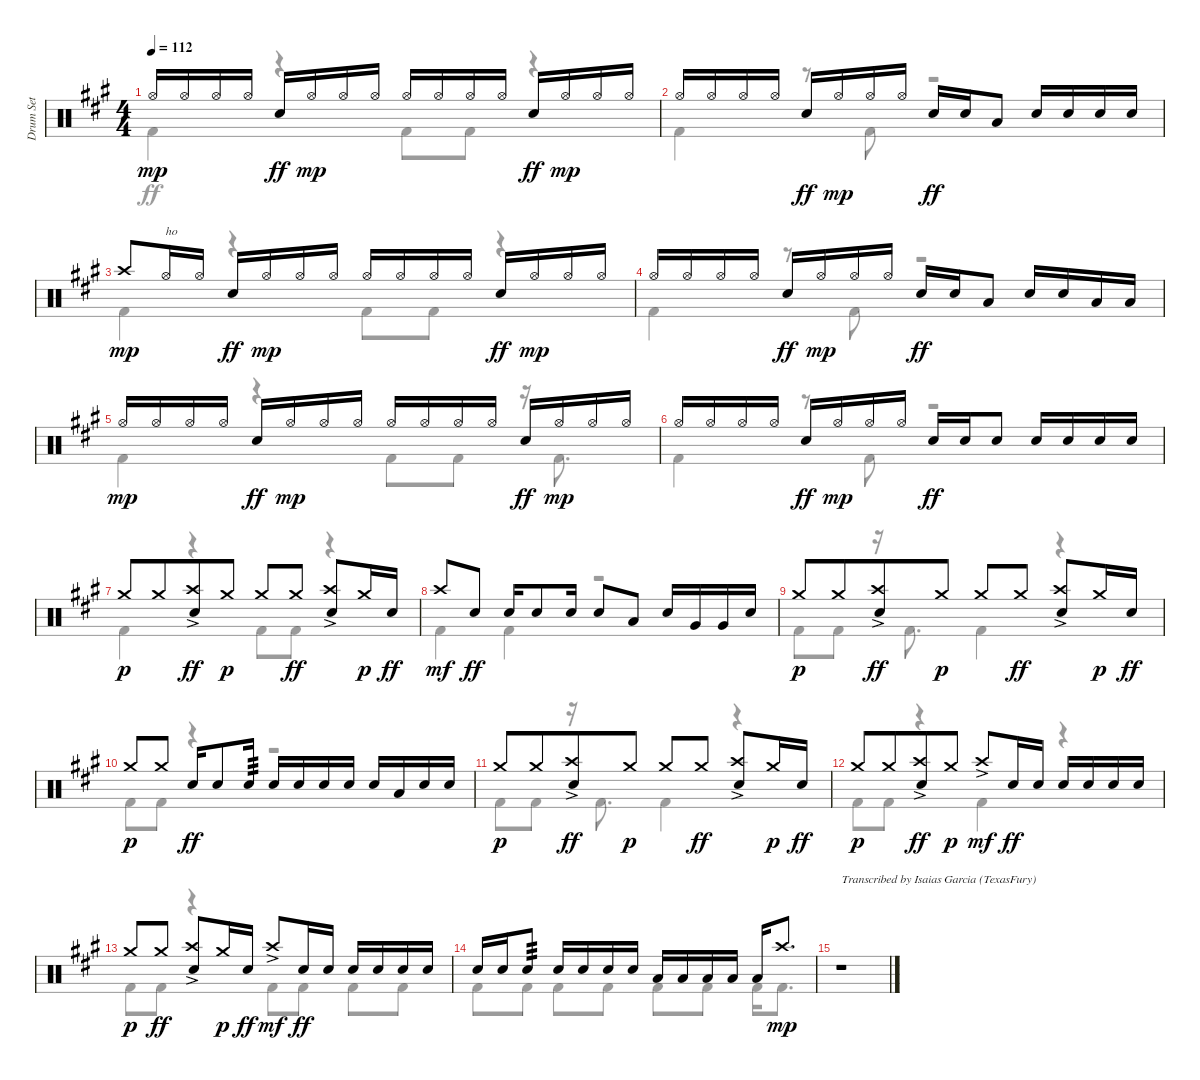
\track ("Drum Set" "Drum Set") {instrument percussion}
\staff {score}
\articulation defaults
\voice
\ts (4 4)
\tempo 112
\clef neutral
\ks f#minor "Hi-Hat (open)".16{dy mp} "Hi-Hat (open)".16 "Hi-Hat (open)".16 "Hi-Hat (open)".16 "Electric Snare (hit)".16{dy ff} "Hi-Hat (open)".16{dy mp} "Hi-Hat (open)".16 "Hi-Hat (open)".16 "Hi-Hat (open)".16 "Hi-Hat (open)".16 "Hi-Hat (open)".16 "Hi-Hat (open)".16 "Electric Snare (hit)".16{dy ff} "Hi-Hat (open)".16{dy mp} "Hi-Hat (open)".16 "Hi-Hat (open)".16
|
"Hi-Hat (open)".16 "Hi-Hat (open)".16 "Hi-Hat (open)".16 "Hi-Hat (open)".16 "Electric Snare (hit)".16{dy ff} "Hi-Hat (open)".16{dy mp} "Hi-Hat (open)".16 "Hi-Hat (open)".16 "Electric Snare (hit)".16{dy ff} "Electric Snare (hit)".16 "Low Tom (hit)".8 "Electric Snare (hit)".16 "Electric Snare (hit)".16 "Electric Snare (hit)".16 "Electric Snare (hit)".16 |
"Crash high (hit)".8{dy mp} "Hi-Hat (open)".16{txt "ho"} "Hi-Hat (open)".16 "Electric Snare (hit)".16{dy ff} "Hi-Hat (open)".16{dy mp} "Hi-Hat (open)".16 "Hi-Hat (open)".16 "Hi-Hat (open)".16 "Hi-Hat (open)".16 "Hi-Hat (open)".16 "Hi-Hat (open)".16 "Electric Snare (hit)".16{dy ff} "Hi-Hat (open)".16{dy mp} "Hi-Hat (open)".16 "Hi-Hat (open)".16 |
"Hi-Hat (open)".16 "Hi-Hat (open)".16 "Hi-Hat (open)".16 "Hi-Hat (open)".16 "Electric Snare (hit)".16{dy ff} "Hi-Hat (open)".16{dy mp} "Hi-Hat (open)".16 "Hi-Hat (open)".16 "Electric Snare (hit)".16{dy ff} "Electric Snare (hit)".16 "Low Tom (hit)".8 "Electric Snare (hit)".16 "Electric Snare (hit)".16 "Low Tom (hit)".16 "Low Tom (hit)".16 |
"Hi-Hat (open)".16{dy mp} "Hi-Hat (open)".16 "Hi-Hat (open)".16 "Hi-Hat (open)".16 "Electric Snare (hit)".16{dy ff} "Hi-Hat (open)".16{dy mp} "Hi-Hat (open)".16 "Hi-Hat (open)".16 "Hi-Hat (open)".16 "Hi-Hat (open)".16 "Hi-Hat (open)".16 "Hi-Hat (open)".16 "Electric Snare (hit)".16{dy ff} "Hi-Hat (open)".16{dy mp} "Hi-Hat (open)".16 "Hi-Hat (open)".16 |
"Hi-Hat (open)".16 "Hi-Hat (open)".16 "Hi-Hat (open)".16 "Hi-Hat (open)".16 "Electric Snare (hit)".16{dy ff} "Hi-Hat (open)".16{dy mp} "Hi-Hat (open)".16 "Hi-Hat (open)".16 "Electric Snare (hit)".16{dy ff} "Electric Snare (hit)".16 "Electric Snare (hit)".8 "Electric Snare (hit)".16 "Electric Snare (hit)".16 "Electric Snare (hit)".16 "Electric Snare (hit)".16 |
"Crash medium (hit)".8{dy p} "Crash medium (hit)".8{beam merge} ("Crash high (hit)"{ac} "Electric Snare (hit)").8{dy ff} "Crash medium (hit)".8{dy p} "Crash medium (hit)".8 "Crash medium (hit)".8{dy ff beam split} ("Crash high (hit)"{ac} "Electric Snare (hit)").8 "Crash medium (hit)".16{dy p} "Electric Snare (hit)".16{dy ff} |
"Crash high (hit)".8{dy mf} "Electric Snare (hit)".8{dy ff} "Electric Snare (hit)".16 "Electric Snare (hit)".8 "Electric Snare (hit)".16 "Electric Snare (hit)".8 "Low Tom (hit)".8 "Electric Snare (hit)".16 "Very Low Tom (hit)".16 "Very Low Tom (hit)".16 "Electric Snare (hit)".16 |
"Crash medium (hit)".8{dy p} "Crash medium (hit)".8{beam merge} ("Crash high (hit)"{ac} "Electric Snare (hit)").8{dy ff} "Crash medium (hit)".8{dy p} "Crash medium (hit)".8 "Crash medium (hit)".8{dy ff beam split} ("Crash high (hit)"{ac} "Electric Snare (hit)").8 "Crash medium (hit)".16{dy p} "Electric Snare (hit)".16{dy ff} |
"Crash medium (hit)".8{dy p} "Crash medium (hit)".8 "Electric Snare (hit)".16{dy ff} "Electric Snare (hit)".8 "Electric Snare (hit)".16{tp 3} "Electric Snare (hit)".16 "Electric Snare (hit)".16 "Electric Snare (hit)".16 "Electric Snare (hit)".16 "Electric Snare (hit)".16 "Low Tom (hit)".16 "Electric Snare (hit)".16 "Electric Snare (hit)".16 |
"Crash medium (hit)".8{dy p} "Crash medium (hit)".8{beam merge} ("Crash high (hit)"{ac} "Electric Snare (hit)").8{dy ff} "Crash medium (hit)".8{dy p} "Crash medium (hit)".8 "Crash medium (hit)".8{dy ff beam split} ("Crash high (hit)"{ac} "Electric Snare (hit)").8 "Crash medium (hit)".16{dy p} "Electric Snare (hit)".16{dy ff} |
"Crash medium (hit)".8{dy p} "Crash medium (hit)".8{beam merge} ("Crash high (hit)"{ac} "Electric Snare (hit)").8{dy ff} "Crash medium (hit)".8{dy p} "Crash high (hit)"{ac}.8{dy mf} "Electric Snare (hit)".16{dy ff} "Electric Snare (hit)".16 "Electric Snare (hit)".16 "Electric Snare (hit)".16 "Electric Snare (hit)".16 "Electric Snare (hit)".16 |
"Crash medium (hit)".8{dy p} "Crash medium (hit)".8{dy ff beam split} ("Crash high (hit)"{ac} "Electric Snare (hit)").8 "Crash medium (hit)".16{dy p} "Electric Snare (hit)".16{dy ff} "Crash high (hit)"{ac}.8{dy mf} "Electric Snare (hit)".16{dy ff} "Electric Snare (hit)".16 "Electric Snare (hit)".16 "Electric Snare (hit)".16 "Electric Snare (hit)".16 "Electric Snare (hit)".16 |
"Electric Snare (hit)".16 "Electric Snare (hit)".16 "Electric Snare (hit)".8{tp 3} "Electric Snare (hit)".16 "Electric Snare (hit)".16 "Electric Snare (hit)".16 "Electric Snare (hit)".16 "Low Tom (hit)".16 "Low Tom (hit)".16 "Low Tom (hit)".16 "Low Tom (hit)".16 "Low Tom (hit)".16 "Crash high (hit)".8{d dy mp} |
r.1{txt "Transcribed by Isaias Garcia (TexasFury)"}
\voice
\clef neutral
\ottava regular
\simile none
\ks f#minor "Kick (hit) 2".4{dy ff}
r.4 "Kick (hit) 2".8 "Kick (hit) 2".8 r.4 |
"Kick (hit) 2".4 r.8 "Kick (hit) 2".8 r.2 |
"Kick (hit) 2".4 r.4 "Kick (hit) 2".8 "Kick (hit) 2".8 r.4 |
"Kick (hit) 2".4 r.8 "Kick (hit) 2".8 r.2 |
"Kick (hit) 2".4 r.4 "Kick (hit) 2".8 "Kick (hit) 2".8 r.16 "Kick (hit) 2".8{d} |
"Kick (hit) 2".4 r.8 "Kick (hit) 2".8 r.2 |
"Kick (hit) 2".4 r.4 "Kick (hit) 2".8 "Kick (hit) 2".8 r.4 |
"Kick (hit) 2".4 "Kick (hit) 2".4 r.2 |
"Kick (hit) 2".8 "Kick (hit) 2".8 r.16 "Kick (hit) 2".8{d} "Kick (hit) 2".4 r.4 |
"Kick (hit) 2".8 "Kick (hit) 2".8 r.4 r.2 |
"Kick (hit) 2".8 "Kick (hit) 2".8 r.16 "Kick (hit) 2".8{d} "Kick (hit) 2".4 r.4 |
"Kick (hit) 2".8 "Kick (hit) 2".8 r.4 "Kick (hit) 2".4 r.4 |
"Kick (hit) 2".8 "Kick (hit) 2".8 r.4 "Kick (hit) 2".8 "Kick (hit) 2".8 "Kick (hit) 2".8 "Kick (hit) 2".8 |
"Kick (hit) 2".8 "Kick (hit) 2".8 "Kick (hit) 2".8 "Kick (hit) 2".8 "Kick (hit) 2".8 "Kick (hit) 2".8 "Kick (hit) 2".16 "Kick (hit) 2".8{d} |
